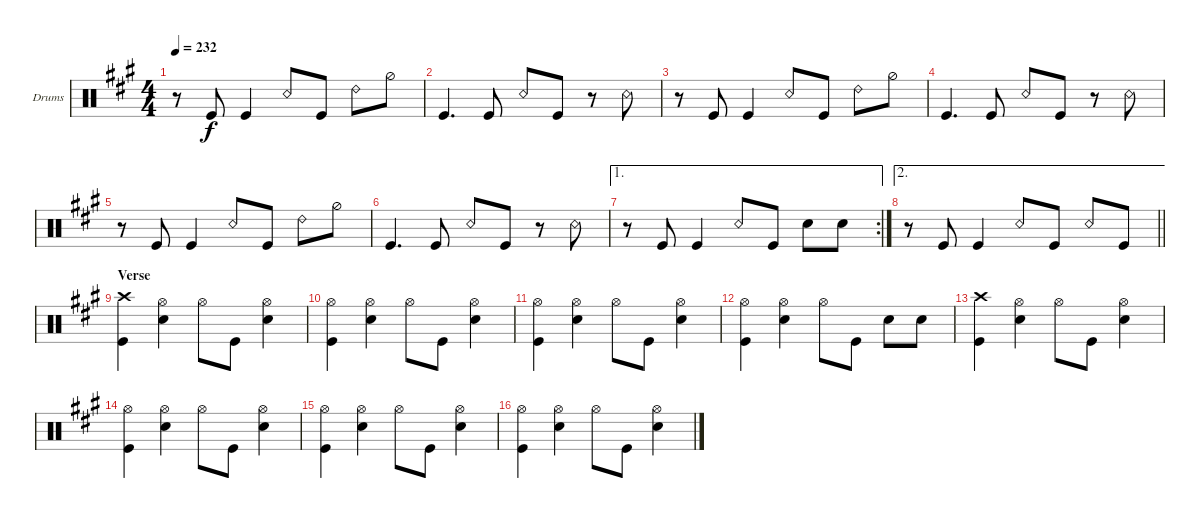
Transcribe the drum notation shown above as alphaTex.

\defaultSystemsLayout 4
\bracketExtendMode groupsimilarinstruments
\firstSystemTrackNameOrientation horizontal
\otherSystemsTrackNameOrientation horizontal
\track ("Drums" "Drums") {instrument percussion}
\staff {score}
\articulation defaults
\ts (4 4)
\tempo 232
\clef neutral
\ks a
r.8{dy f} "Kick (hit)".8 "Kick (hit)".4 "Snare (rim shot)".8 "Kick (hit)".8 "Ride (bell) 2".8 "Hi-Hat (half)".8 |
"Kick (hit)".4{d} "Kick (hit)".8 "Snare (rim shot)".8 "Kick (hit)".8 r.8 "Snare (rim shot)".8 |
r.8 "Kick (hit)".8 "Kick (hit)".4 "Snare (rim shot)".8 "Kick (hit)".8 "Ride (bell) 2".8 "Hi-Hat (half)".8 |
"Kick (hit)".4{d} "Kick (hit)".8 "Snare (rim shot)".8 "Kick (hit)".8 r.8 "Snare (rim shot)".8 |
r.8 "Kick (hit)".8 "Kick (hit)".4 "Snare (rim shot)".8 "Kick (hit)".8 "Ride (bell) 2".8 "Hi-Hat (half)".8 |
"Kick (hit)".4{d} "Kick (hit)".8 "Snare (rim shot)".8 "Kick (hit)".8 r.8 "Snare (rim shot)".8 |
\ae 1
\rc 2
r.8 "Kick (hit)".8 "Kick (hit)".4 "Snare (rim shot)".8 "Kick (hit)".8 "Snare (hit) 2".8 "Snare (hit) 2".8 |
\ae 2
\barLineRight lightlight
r.8 "Kick (hit)".8 "Kick (hit)".4 "Snare (rim shot)".8 "Kick (hit)".8 "Snare (rim shot)".8 "Kick (hit)".8 |
\section ("" "Verse")
("Kick (hit)" "Crash high (hit)").4 ("Snare (hit) 2" "Hi-Hat (open)").4 "Hi-Hat (open)".8 "Kick (hit)".8 ("Snare (hit) 2" "Hi-Hat (open)").4 |
("Kick (hit)" "Hi-Hat (open)").4 ("Snare (hit) 2" "Hi-Hat (open)").4 "Hi-Hat (open)".8 "Kick (hit)".8 ("Snare (hit) 2" "Hi-Hat (open)").4 |
("Kick (hit)" "Hi-Hat (open)").4 ("Snare (hit) 2" "Hi-Hat (open)").4 "Hi-Hat (open)".8 "Kick (hit)".8 ("Snare (hit) 2" "Hi-Hat (open)").4 |
("Kick (hit)" "Hi-Hat (open)").4 ("Snare (hit) 2" "Hi-Hat (open)").4 "Hi-Hat (open)".8 "Kick (hit)".8 "Snare (hit) 2".8 "Snare (hit) 2".8 |
("Kick (hit)" "Crash high (hit)").4 ("Snare (hit) 2" "Hi-Hat (open)").4 "Hi-Hat (open)".8 "Kick (hit)".8 ("Snare (hit) 2" "Hi-Hat (open)").4 |
("Kick (hit)" "Hi-Hat (open)").4 ("Snare (hit) 2" "Hi-Hat (open)").4 "Hi-Hat (open)".8 "Kick (hit)".8 ("Snare (hit) 2" "Hi-Hat (open)").4 |
("Kick (hit)" "Hi-Hat (open)").4 ("Snare (hit) 2" "Hi-Hat (open)").4 "Hi-Hat (open)".8 "Kick (hit)".8 ("Snare (hit) 2" "Hi-Hat (open)").4 |
("Kick (hit)" "Hi-Hat (open)").4 ("Snare (hit) 2" "Hi-Hat (open)").4 "Hi-Hat (open)".8 "Kick (hit)".8 ("Snare (hit) 2" "Hi-Hat (open)").4
